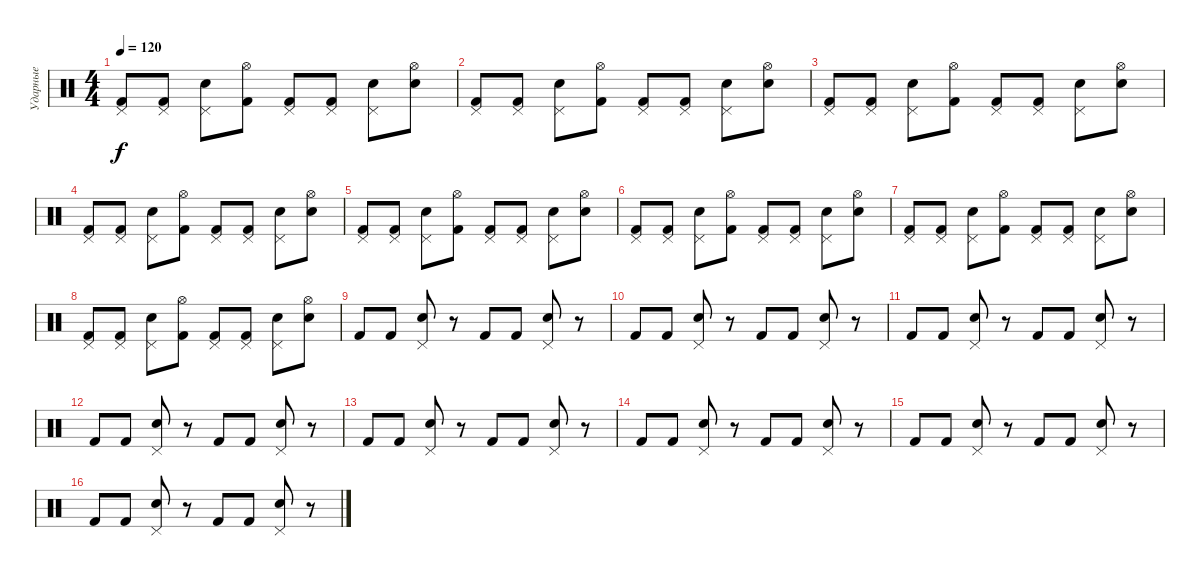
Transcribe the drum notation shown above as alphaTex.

\track ("Ударные" "Ударные") {instrument percussion}
\staff {score}
\articulation defaults
\ts (4 4)
\tempo 120
\clef neutral
\ks c
("Kick (hit) 2" "Pedal Hi-Hat (hit)").8{dy f} ("Kick (hit) 2" "Pedal Hi-Hat (hit)").8 ("Snare (hit) 2" "Pedal Hi-Hat (hit)").8 ("Kick (hit) 2" "Hi-Hat (open)").8 ("Kick (hit) 2" "Pedal Hi-Hat (hit)").8 ("Kick (hit) 2" "Pedal Hi-Hat (hit)").8 ("Snare (hit) 2" "Pedal Hi-Hat (hit)").8 ("Snare (hit) 2" "Hi-Hat (open)").8 |
("Kick (hit) 2" "Pedal Hi-Hat (hit)").8 ("Kick (hit) 2" "Pedal Hi-Hat (hit)").8 ("Snare (hit) 2" "Pedal Hi-Hat (hit)").8 ("Kick (hit) 2" "Hi-Hat (open)").8 ("Kick (hit) 2" "Pedal Hi-Hat (hit)").8 ("Kick (hit) 2" "Pedal Hi-Hat (hit)").8 ("Snare (hit) 2" "Pedal Hi-Hat (hit)").8 ("Snare (hit) 2" "Hi-Hat (open)").8 |
("Kick (hit) 2" "Pedal Hi-Hat (hit)").8 ("Kick (hit) 2" "Pedal Hi-Hat (hit)").8 ("Snare (hit) 2" "Pedal Hi-Hat (hit)").8 ("Kick (hit) 2" "Hi-Hat (open)").8 ("Kick (hit) 2" "Pedal Hi-Hat (hit)").8 ("Kick (hit) 2" "Pedal Hi-Hat (hit)").8 ("Snare (hit) 2" "Pedal Hi-Hat (hit)").8 ("Snare (hit) 2" "Hi-Hat (open)").8 |
("Kick (hit) 2" "Pedal Hi-Hat (hit)").8 ("Kick (hit) 2" "Pedal Hi-Hat (hit)").8 ("Snare (hit) 2" "Pedal Hi-Hat (hit)").8 ("Kick (hit) 2" "Hi-Hat (open)").8 ("Kick (hit) 2" "Pedal Hi-Hat (hit)").8 ("Kick (hit) 2" "Pedal Hi-Hat (hit)").8 ("Snare (hit) 2" "Pedal Hi-Hat (hit)").8 ("Snare (hit) 2" "Hi-Hat (open)").8 |
("Kick (hit) 2" "Pedal Hi-Hat (hit)").8 ("Kick (hit) 2" "Pedal Hi-Hat (hit)").8 ("Snare (hit) 2" "Pedal Hi-Hat (hit)").8 ("Kick (hit) 2" "Hi-Hat (open)").8 ("Kick (hit) 2" "Pedal Hi-Hat (hit)").8 ("Kick (hit) 2" "Pedal Hi-Hat (hit)").8 ("Snare (hit) 2" "Pedal Hi-Hat (hit)").8 ("Snare (hit) 2" "Hi-Hat (open)").8 |
("Kick (hit) 2" "Pedal Hi-Hat (hit)").8 ("Kick (hit) 2" "Pedal Hi-Hat (hit)").8 ("Snare (hit) 2" "Pedal Hi-Hat (hit)").8 ("Kick (hit) 2" "Hi-Hat (open)").8 ("Kick (hit) 2" "Pedal Hi-Hat (hit)").8 ("Kick (hit) 2" "Pedal Hi-Hat (hit)").8 ("Snare (hit) 2" "Pedal Hi-Hat (hit)").8 ("Snare (hit) 2" "Hi-Hat (open)").8 |
("Kick (hit) 2" "Pedal Hi-Hat (hit)").8 ("Kick (hit) 2" "Pedal Hi-Hat (hit)").8 ("Snare (hit) 2" "Pedal Hi-Hat (hit)").8 ("Kick (hit) 2" "Hi-Hat (open)").8 ("Kick (hit) 2" "Pedal Hi-Hat (hit)").8 ("Kick (hit) 2" "Pedal Hi-Hat (hit)").8 ("Snare (hit) 2" "Pedal Hi-Hat (hit)").8 ("Snare (hit) 2" "Hi-Hat (open)").8 |
("Kick (hit) 2" "Pedal Hi-Hat (hit)").8 ("Kick (hit) 2" "Pedal Hi-Hat (hit)").8 ("Snare (hit) 2" "Pedal Hi-Hat (hit)").8 ("Kick (hit) 2" "Hi-Hat (open)").8 ("Kick (hit) 2" "Pedal Hi-Hat (hit)").8 ("Kick (hit) 2" "Pedal Hi-Hat (hit)").8 ("Snare (hit) 2" "Pedal Hi-Hat (hit)").8 ("Snare (hit) 2" "Hi-Hat (open)").8 |
"Kick (hit) 2".8 "Kick (hit) 2".8 ("Snare (hit) 2" "Pedal Hi-Hat (hit)").8 r.8 "Kick (hit) 2".8 "Kick (hit) 2".8 ("Snare (hit) 2" "Pedal Hi-Hat (hit)").8 r.8 |
"Kick (hit) 2".8 "Kick (hit) 2".8 ("Snare (hit) 2" "Pedal Hi-Hat (hit)").8 r.8 "Kick (hit) 2".8 "Kick (hit) 2".8 ("Snare (hit) 2" "Pedal Hi-Hat (hit)").8 r.8 |
"Kick (hit) 2".8 "Kick (hit) 2".8 ("Snare (hit) 2" "Pedal Hi-Hat (hit)").8 r.8 "Kick (hit) 2".8 "Kick (hit) 2".8 ("Snare (hit) 2" "Pedal Hi-Hat (hit)").8 r.8 |
"Kick (hit) 2".8 "Kick (hit) 2".8 ("Snare (hit) 2" "Pedal Hi-Hat (hit)").8 r.8 "Kick (hit) 2".8 "Kick (hit) 2".8 ("Snare (hit) 2" "Pedal Hi-Hat (hit)").8 r.8 |
"Kick (hit) 2".8 "Kick (hit) 2".8 ("Snare (hit) 2" "Pedal Hi-Hat (hit)").8 r.8 "Kick (hit) 2".8 "Kick (hit) 2".8 ("Snare (hit) 2" "Pedal Hi-Hat (hit)").8 r.8 |
"Kick (hit) 2".8 "Kick (hit) 2".8 ("Snare (hit) 2" "Pedal Hi-Hat (hit)").8 r.8 "Kick (hit) 2".8 "Kick (hit) 2".8 ("Snare (hit) 2" "Pedal Hi-Hat (hit)").8 r.8 |
"Kick (hit) 2".8 "Kick (hit) 2".8 ("Snare (hit) 2" "Pedal Hi-Hat (hit)").8 r.8 "Kick (hit) 2".8 "Kick (hit) 2".8 ("Snare (hit) 2" "Pedal Hi-Hat (hit)").8 r.8 |
"Kick (hit) 2".8 "Kick (hit) 2".8 ("Snare (hit) 2" "Pedal Hi-Hat (hit)").8 r.8 "Kick (hit) 2".8 "Kick (hit) 2".8 ("Snare (hit) 2" "Pedal Hi-Hat (hit)").8 r.8
